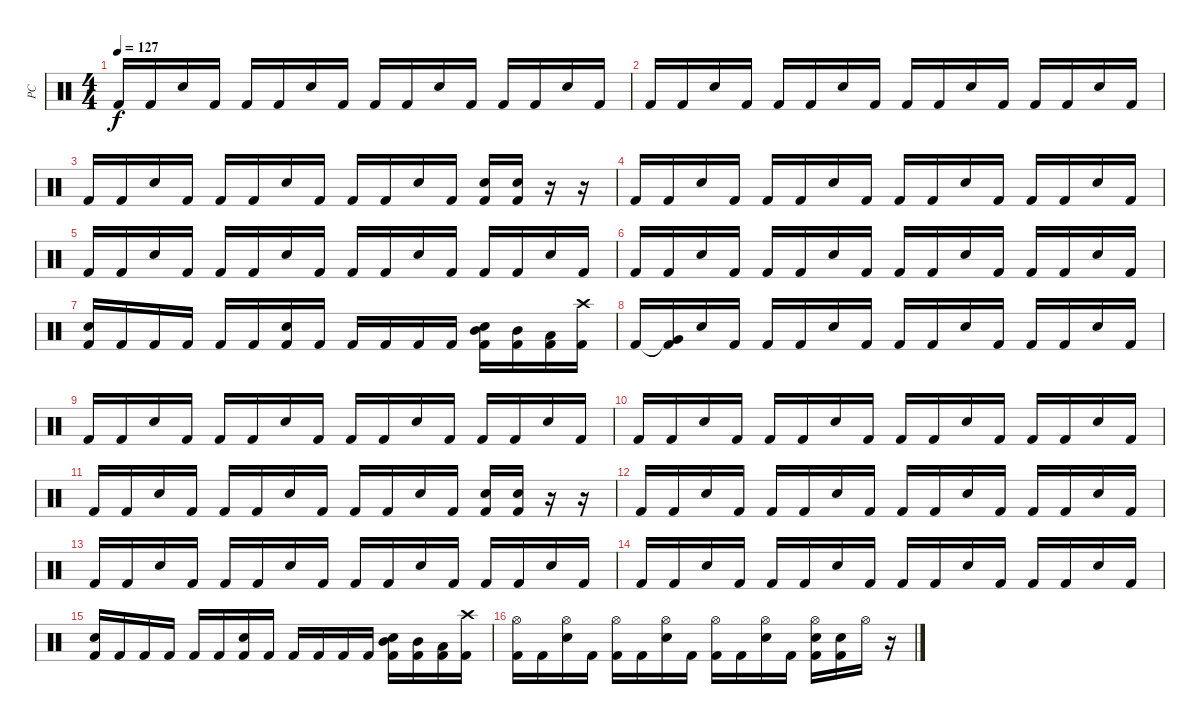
\track ("PC" "PC") {instrument percussion}
\staff {score}
\articulation defaults
\ts (4 4)
\tempo 127
\clef neutral
\ks c "Kick (hit) 2".16{dy f} "Kick (hit) 2".16 "Snare (hit) 2".16 "Kick (hit) 2".16 "Kick (hit) 2".16 "Kick (hit) 2".16 "Snare (hit) 2".16 "Kick (hit) 2".16 "Kick (hit) 2".16 "Kick (hit) 2".16 "Snare (hit) 2".16 "Kick (hit) 2".16 "Kick (hit) 2".16 "Kick (hit) 2".16 "Snare (hit) 2".16 "Kick (hit) 2".16
|
"Kick (hit) 2".16 "Kick (hit) 2".16 "Snare (hit) 2".16 "Kick (hit) 2".16 "Kick (hit) 2".16 "Kick (hit) 2".16 "Snare (hit) 2".16 "Kick (hit) 2".16 "Kick (hit) 2".16 "Kick (hit) 2".16 "Snare (hit) 2".16 "Kick (hit) 2".16 "Kick (hit) 2".16 "Kick (hit) 2".16 "Snare (hit) 2".16 "Kick (hit) 2".16 |
"Kick (hit) 2".16 "Kick (hit) 2".16 "Snare (hit) 2".16 "Kick (hit) 2".16 "Kick (hit) 2".16 "Kick (hit) 2".16 "Snare (hit) 2".16 "Kick (hit) 2".16 "Kick (hit) 2".16 "Kick (hit) 2".16 "Snare (hit) 2".16 "Kick (hit) 2".16 ("Snare (hit) 2" "Kick (hit) 2").16 ("Snare (hit) 2" "Kick (hit) 2").16 r.16 r.16 |
"Kick (hit) 2".16 "Kick (hit) 2".16 "Snare (hit) 2".16 "Kick (hit) 2".16 "Kick (hit) 2".16 "Kick (hit) 2".16 "Snare (hit) 2".16 "Kick (hit) 2".16 "Kick (hit) 2".16 "Kick (hit) 2".16 "Snare (hit) 2".16 "Kick (hit) 2".16 "Kick (hit) 2".16 "Kick (hit) 2".16 "Snare (hit) 2".16 "Kick (hit) 2".16 |
"Kick (hit) 2".16 "Kick (hit) 2".16 "Snare (hit) 2".16 "Kick (hit) 2".16 "Kick (hit) 2".16 "Kick (hit) 2".16 "Snare (hit) 2".16 "Kick (hit) 2".16 "Kick (hit) 2".16 "Kick (hit) 2".16 "Snare (hit) 2".16 "Kick (hit) 2".16 "Kick (hit) 2".16 "Kick (hit) 2".16 "Snare (hit) 2".16 "Kick (hit) 2".16 |
"Kick (hit) 2".16 "Kick (hit) 2".16 "Snare (hit) 2".16 "Kick (hit) 2".16 "Kick (hit) 2".16 "Kick (hit) 2".16 "Snare (hit) 2".16 "Kick (hit) 2".16 "Kick (hit) 2".16 "Kick (hit) 2".16 "Snare (hit) 2".16 "Kick (hit) 2".16 "Kick (hit) 2".16 "Kick (hit) 2".16 "Snare (hit) 2".16 "Kick (hit) 2".16 |
("Snare (hit) 2" "Kick (hit) 2").16 "Kick (hit) 2".16 "Kick (hit) 2".16 "Kick (hit) 2".16 "Kick (hit) 2".16 "Kick (hit) 2".16 ("Snare (hit) 2" "Kick (hit) 2").16 "Kick (hit) 2".16 "Kick (hit) 2".16 "Kick (hit) 2".16 "Kick (hit) 2".16 "Kick (hit) 2".16 ("Mid Tom (hit)" "Snare (hit) 2" "Kick (hit) 2").16 ("Mid Tom (hit)" "Kick (hit) 2").16 ("Low Tom (hit)" "Kick (hit) 2").16 ("Crash high (hit)" "Kick (hit) 2").16 |
"Kick (hit) 2".16 ("Very Low Tom (hit)"{t} "Kick (hit) 2").16 "Snare (hit) 2".16 "Kick (hit) 2".16 "Kick (hit) 2".16 "Kick (hit) 2".16 "Snare (hit) 2".16 "Kick (hit) 2".16 "Kick (hit) 2".16 "Kick (hit) 2".16 "Snare (hit) 2".16 "Kick (hit) 2".16 "Kick (hit) 2".16 "Kick (hit) 2".16 "Snare (hit) 2".16 "Kick (hit) 2".16 |
"Kick (hit) 2".16 "Kick (hit) 2".16 "Snare (hit) 2".16 "Kick (hit) 2".16 "Kick (hit) 2".16 "Kick (hit) 2".16 "Snare (hit) 2".16 "Kick (hit) 2".16 "Kick (hit) 2".16 "Kick (hit) 2".16 "Snare (hit) 2".16 "Kick (hit) 2".16 "Kick (hit) 2".16 "Kick (hit) 2".16 "Snare (hit) 2".16 "Kick (hit) 2".16 |
"Kick (hit) 2".16 "Kick (hit) 2".16 "Snare (hit) 2".16 "Kick (hit) 2".16 "Kick (hit) 2".16 "Kick (hit) 2".16 "Snare (hit) 2".16 "Kick (hit) 2".16 "Kick (hit) 2".16 "Kick (hit) 2".16 "Snare (hit) 2".16 "Kick (hit) 2".16 "Kick (hit) 2".16 "Kick (hit) 2".16 "Snare (hit) 2".16 "Kick (hit) 2".16 |
"Kick (hit) 2".16 "Kick (hit) 2".16 "Snare (hit) 2".16 "Kick (hit) 2".16 "Kick (hit) 2".16 "Kick (hit) 2".16 "Snare (hit) 2".16 "Kick (hit) 2".16 "Kick (hit) 2".16 "Kick (hit) 2".16 "Snare (hit) 2".16 "Kick (hit) 2".16 ("Snare (hit) 2" "Kick (hit) 2").16 ("Snare (hit) 2" "Kick (hit) 2").16 r.16 r.16 |
"Kick (hit) 2".16 "Kick (hit) 2".16 "Snare (hit) 2".16 "Kick (hit) 2".16 "Kick (hit) 2".16 "Kick (hit) 2".16 "Snare (hit) 2".16 "Kick (hit) 2".16 "Kick (hit) 2".16 "Kick (hit) 2".16 "Snare (hit) 2".16 "Kick (hit) 2".16 "Kick (hit) 2".16 "Kick (hit) 2".16 "Snare (hit) 2".16 "Kick (hit) 2".16 |
"Kick (hit) 2".16 "Kick (hit) 2".16 "Snare (hit) 2".16 "Kick (hit) 2".16 "Kick (hit) 2".16 "Kick (hit) 2".16 "Snare (hit) 2".16 "Kick (hit) 2".16 "Kick (hit) 2".16 "Kick (hit) 2".16 "Snare (hit) 2".16 "Kick (hit) 2".16 "Kick (hit) 2".16 "Kick (hit) 2".16 "Snare (hit) 2".16 "Kick (hit) 2".16 |
"Kick (hit) 2".16 "Kick (hit) 2".16 "Snare (hit) 2".16 "Kick (hit) 2".16 "Kick (hit) 2".16 "Kick (hit) 2".16 "Snare (hit) 2".16 "Kick (hit) 2".16 "Kick (hit) 2".16 "Kick (hit) 2".16 "Snare (hit) 2".16 "Kick (hit) 2".16 "Kick (hit) 2".16 "Kick (hit) 2".16 "Snare (hit) 2".16 "Kick (hit) 2".16 |
("Snare (hit) 2" "Kick (hit) 2").16 "Kick (hit) 2".16 "Kick (hit) 2".16 "Kick (hit) 2".16 "Kick (hit) 2".16 "Kick (hit) 2".16 ("Snare (hit) 2" "Kick (hit) 2").16 "Kick (hit) 2".16 "Kick (hit) 2".16 "Kick (hit) 2".16 "Kick (hit) 2".16 "Kick (hit) 2".16 ("Mid Tom (hit)" "Snare (hit) 2" "Kick (hit) 2").16 ("Mid Tom (hit)" "Kick (hit) 2").16 ("Low Tom (hit)" "Kick (hit) 2").16 ("Crash high (hit)" "Kick (hit) 2").16 |
("Hi-Hat (open)" "Kick (hit) 2").16 "Kick (hit) 2".16 ("Hi-Hat (open)" "Snare (hit) 2").16 "Kick (hit) 2".16 ("Hi-Hat (open)" "Kick (hit) 2").16 "Kick (hit) 2".16 ("Hi-Hat (open)" "Snare (hit) 2").16 "Kick (hit) 2".16 ("Hi-Hat (open)" "Kick (hit) 2").16 "Kick (hit) 2".16 ("Hi-Hat (open)" "Snare (hit) 2").16 "Kick (hit) 2".16 ("Hi-Hat (open)" "Snare (hit) 2" "Kick (hit) 2").16 ("Snare (hit) 2" "Kick (hit) 2").16 "Hi-Hat (open)".16 r.16
